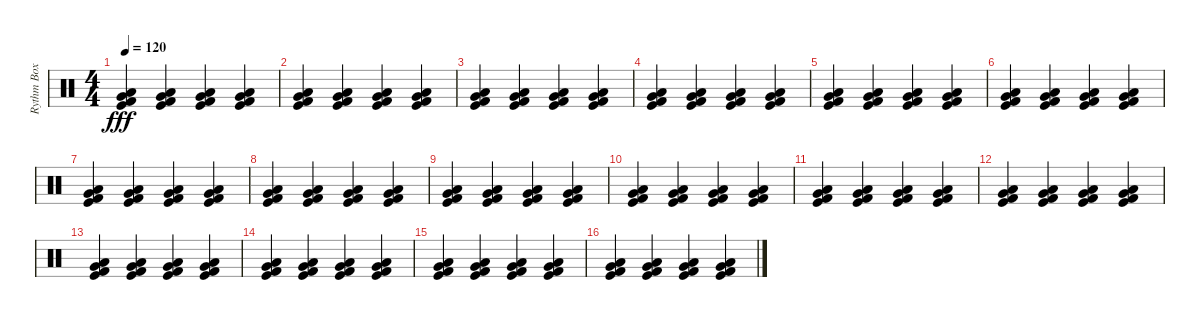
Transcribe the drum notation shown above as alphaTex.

\track ("Rythm Box" "Rythm Box") {instrument percussion}
\staff {score}
\articulation defaults
\ts (4 4)
\tempo 120
\clef neutral
\ks c
("Low Floor Tom (hit)" "Very Low Tom (hit)" "Kick (hit) 2" "Kick (hit)").4{dy fff} ("Low Floor Tom (hit)" "Very Low Tom (hit)" "Kick (hit) 2" "Kick (hit)").4 ("Low Floor Tom (hit)" "Very Low Tom (hit)" "Kick (hit) 2" "Kick (hit)").4 ("Low Floor Tom (hit)" "Very Low Tom (hit)" "Kick (hit) 2" "Kick (hit)").4 |
("Low Floor Tom (hit)" "Very Low Tom (hit)" "Kick (hit) 2" "Kick (hit)").4 ("Low Floor Tom (hit)" "Very Low Tom (hit)" "Kick (hit) 2" "Kick (hit)").4 ("Low Floor Tom (hit)" "Very Low Tom (hit)" "Kick (hit) 2" "Kick (hit)").4 ("Low Floor Tom (hit)" "Very Low Tom (hit)" "Kick (hit) 2" "Kick (hit)").4 |
("Low Floor Tom (hit)" "Very Low Tom (hit)" "Kick (hit) 2" "Kick (hit)").4 ("Low Floor Tom (hit)" "Very Low Tom (hit)" "Kick (hit) 2" "Kick (hit)").4 ("Low Floor Tom (hit)" "Very Low Tom (hit)" "Kick (hit) 2" "Kick (hit)").4 ("Low Floor Tom (hit)" "Very Low Tom (hit)" "Kick (hit) 2" "Kick (hit)").4 |
("Low Floor Tom (hit)" "Very Low Tom (hit)" "Kick (hit) 2" "Kick (hit)").4 ("Low Floor Tom (hit)" "Very Low Tom (hit)" "Kick (hit) 2" "Kick (hit)").4 ("Low Floor Tom (hit)" "Very Low Tom (hit)" "Kick (hit) 2" "Kick (hit)").4 ("Low Floor Tom (hit)" "Very Low Tom (hit)" "Kick (hit) 2" "Kick (hit)").4 |
("Low Floor Tom (hit)" "Very Low Tom (hit)" "Kick (hit) 2" "Kick (hit)").4 ("Low Floor Tom (hit)" "Very Low Tom (hit)" "Kick (hit) 2" "Kick (hit)").4 ("Low Floor Tom (hit)" "Very Low Tom (hit)" "Kick (hit) 2" "Kick (hit)").4 ("Low Floor Tom (hit)" "Very Low Tom (hit)" "Kick (hit) 2" "Kick (hit)").4 |
("Low Floor Tom (hit)" "Very Low Tom (hit)" "Kick (hit) 2" "Kick (hit)").4 ("Low Floor Tom (hit)" "Very Low Tom (hit)" "Kick (hit) 2" "Kick (hit)").4 ("Low Floor Tom (hit)" "Very Low Tom (hit)" "Kick (hit) 2" "Kick (hit)").4 ("Low Floor Tom (hit)" "Very Low Tom (hit)" "Kick (hit) 2" "Kick (hit)").4 |
("Low Floor Tom (hit)" "Very Low Tom (hit)" "Kick (hit) 2" "Kick (hit)").4 ("Low Floor Tom (hit)" "Very Low Tom (hit)" "Kick (hit) 2" "Kick (hit)").4 ("Low Floor Tom (hit)" "Very Low Tom (hit)" "Kick (hit) 2" "Kick (hit)").4 ("Low Floor Tom (hit)" "Very Low Tom (hit)" "Kick (hit) 2" "Kick (hit)").4 |
("Low Floor Tom (hit)" "Very Low Tom (hit)" "Kick (hit) 2" "Kick (hit)").4 ("Low Floor Tom (hit)" "Very Low Tom (hit)" "Kick (hit) 2" "Kick (hit)").4 ("Low Floor Tom (hit)" "Very Low Tom (hit)" "Kick (hit) 2" "Kick (hit)").4 ("Low Floor Tom (hit)" "Very Low Tom (hit)" "Kick (hit) 2" "Kick (hit)").4 |
("Low Floor Tom (hit)" "Very Low Tom (hit)" "Kick (hit) 2" "Kick (hit)").4 ("Low Floor Tom (hit)" "Very Low Tom (hit)" "Kick (hit) 2" "Kick (hit)").4 ("Low Floor Tom (hit)" "Very Low Tom (hit)" "Kick (hit) 2" "Kick (hit)").4 ("Low Floor Tom (hit)" "Very Low Tom (hit)" "Kick (hit) 2" "Kick (hit)").4 |
("Low Floor Tom (hit)" "Very Low Tom (hit)" "Kick (hit) 2" "Kick (hit)").4 ("Low Floor Tom (hit)" "Very Low Tom (hit)" "Kick (hit) 2" "Kick (hit)").4 ("Low Floor Tom (hit)" "Very Low Tom (hit)" "Kick (hit) 2" "Kick (hit)").4 ("Low Floor Tom (hit)" "Very Low Tom (hit)" "Kick (hit) 2" "Kick (hit)").4 |
("Low Floor Tom (hit)" "Very Low Tom (hit)" "Kick (hit) 2" "Kick (hit)").4 ("Low Floor Tom (hit)" "Very Low Tom (hit)" "Kick (hit) 2" "Kick (hit)").4 ("Low Floor Tom (hit)" "Very Low Tom (hit)" "Kick (hit) 2" "Kick (hit)").4 ("Low Floor Tom (hit)" "Very Low Tom (hit)" "Kick (hit) 2" "Kick (hit)").4 |
("Low Floor Tom (hit)" "Very Low Tom (hit)" "Kick (hit) 2" "Kick (hit)").4 ("Low Floor Tom (hit)" "Very Low Tom (hit)" "Kick (hit) 2" "Kick (hit)").4 ("Low Floor Tom (hit)" "Very Low Tom (hit)" "Kick (hit) 2" "Kick (hit)").4 ("Low Floor Tom (hit)" "Very Low Tom (hit)" "Kick (hit) 2" "Kick (hit)").4 |
("Low Floor Tom (hit)" "Very Low Tom (hit)" "Kick (hit) 2" "Kick (hit)").4 ("Low Floor Tom (hit)" "Very Low Tom (hit)" "Kick (hit) 2" "Kick (hit)").4 ("Low Floor Tom (hit)" "Very Low Tom (hit)" "Kick (hit) 2" "Kick (hit)").4 ("Low Floor Tom (hit)" "Very Low Tom (hit)" "Kick (hit) 2" "Kick (hit)").4 |
("Low Floor Tom (hit)" "Very Low Tom (hit)" "Kick (hit) 2" "Kick (hit)").4 ("Low Floor Tom (hit)" "Very Low Tom (hit)" "Kick (hit) 2" "Kick (hit)").4 ("Low Floor Tom (hit)" "Very Low Tom (hit)" "Kick (hit) 2" "Kick (hit)").4 ("Low Floor Tom (hit)" "Very Low Tom (hit)" "Kick (hit) 2" "Kick (hit)").4 |
("Low Floor Tom (hit)" "Very Low Tom (hit)" "Kick (hit) 2" "Kick (hit)").4 ("Low Floor Tom (hit)" "Very Low Tom (hit)" "Kick (hit) 2" "Kick (hit)").4 ("Low Floor Tom (hit)" "Very Low Tom (hit)" "Kick (hit) 2" "Kick (hit)").4 ("Low Floor Tom (hit)" "Very Low Tom (hit)" "Kick (hit) 2" "Kick (hit)").4 |
("Low Floor Tom (hit)" "Very Low Tom (hit)" "Kick (hit) 2" "Kick (hit)").4 ("Low Floor Tom (hit)" "Very Low Tom (hit)" "Kick (hit) 2" "Kick (hit)").4 ("Low Floor Tom (hit)" "Very Low Tom (hit)" "Kick (hit) 2" "Kick (hit)").4 ("Low Floor Tom (hit)" "Very Low Tom (hit)" "Kick (hit) 2" "Kick (hit)").4
